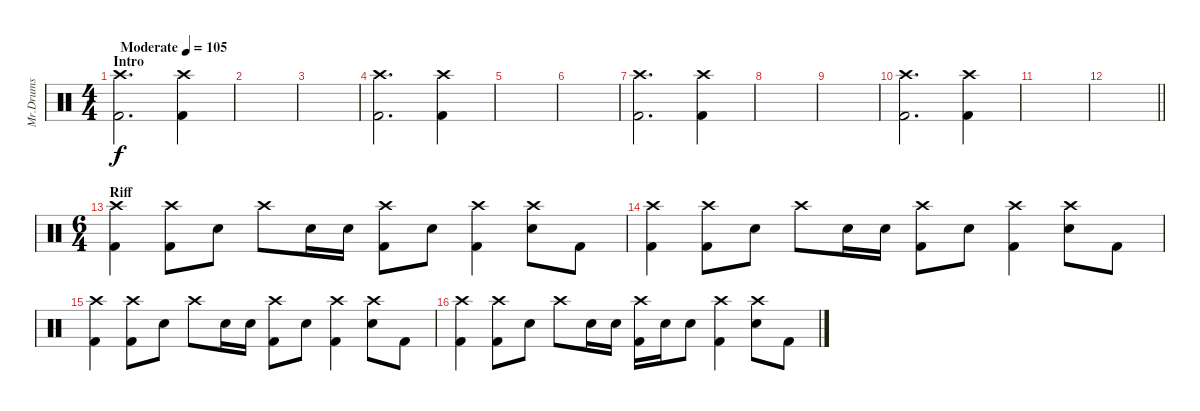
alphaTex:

\track ("Mr.Drums" "Mr.Drums") {instrument percussion}
\staff {score}
\articulation defaults
\ts (4 4)
\section ("" "Intro")
\tempo (105 "Moderate")
\clef neutral
\ks c
("Crash high (hit)" "Kick (hit) 2").2{d dy f} ("Crash high (hit)" "Kick (hit) 2").4 |
|
|
("Crash high (hit)" "Kick (hit) 2").2{d} ("Crash high (hit)" "Kick (hit) 2").4 |
|
|
("Crash high (hit)" "Kick (hit) 2").2{d} ("Crash high (hit)" "Kick (hit) 2").4 |
|
|
("Crash high (hit)" "Kick (hit) 2").2{d} ("Crash high (hit)" "Kick (hit) 2").4 |
|
\barLineRight lightlight
|
\ts (6 4)
\section ("" "Riff")
("Crash high (hit)" "Kick (hit) 2").4 ("Crash high (hit)" "Kick (hit) 2").8 "Electric Snare (hit)".8 "Crash high (hit)".8 "Electric Snare (hit)".16 "Electric Snare (hit)".16 ("Crash high (hit)" "Kick (hit) 2").8 "Electric Snare (hit)".8 ("Crash high (hit)" "Kick (hit) 2").4 ("Crash high (hit)" "Electric Snare (hit)").8 "Kick (hit) 2".8 |
("Crash high (hit)" "Kick (hit) 2").4 ("Crash high (hit)" "Kick (hit) 2").8 "Electric Snare (hit)".8 "Crash high (hit)".8 "Electric Snare (hit)".16 "Electric Snare (hit)".16 ("Crash high (hit)" "Kick (hit) 2").8 "Electric Snare (hit)".8 ("Crash high (hit)" "Kick (hit) 2").4 ("Crash high (hit)" "Electric Snare (hit)").8 "Kick (hit) 2".8 |
("Crash high (hit)" "Kick (hit) 2").4 ("Crash high (hit)" "Kick (hit) 2").8 "Electric Snare (hit)".8 "Crash high (hit)".8 "Electric Snare (hit)".16 "Electric Snare (hit)".16 ("Crash high (hit)" "Kick (hit) 2").8 "Electric Snare (hit)".8 ("Crash high (hit)" "Kick (hit) 2").4 ("Crash high (hit)" "Electric Snare (hit)").8 "Kick (hit) 2".8 |
("Crash high (hit)" "Kick (hit) 2").4 ("Crash high (hit)" "Kick (hit) 2").8 "Electric Snare (hit)".8 "Crash high (hit)".8 "Electric Snare (hit)".16 "Electric Snare (hit)".16 ("Crash high (hit)" "Kick (hit) 2").16 "Electric Snare (hit)".16 "Electric Snare (hit)".8 ("Crash high (hit)" "Kick (hit) 2").4 ("Crash high (hit)" "Electric Snare (hit)").8 "Kick (hit) 2".8
